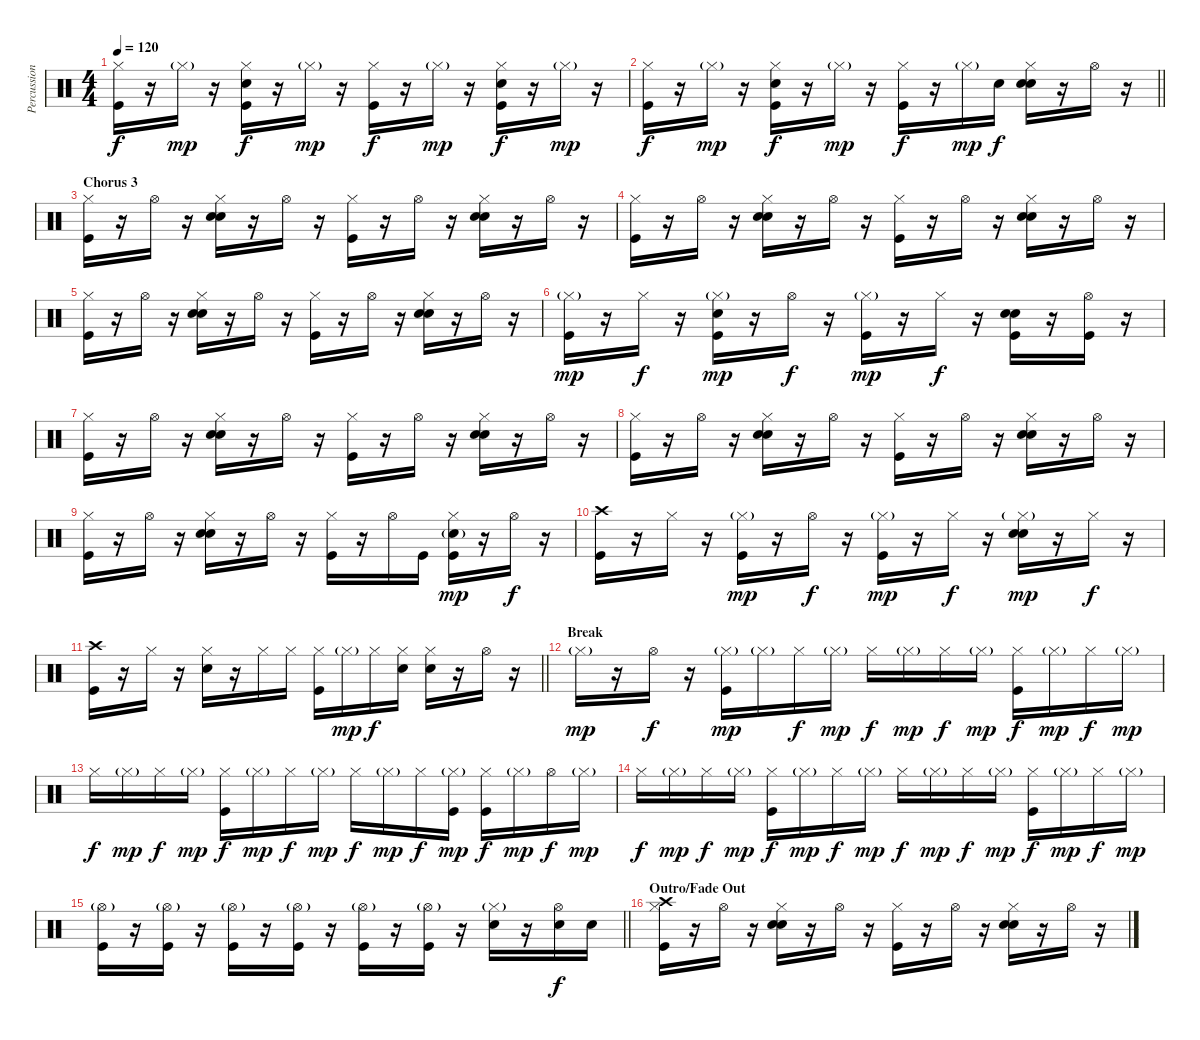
\track ("Percussion" "Percussion") {instrument percussion}
\staff {score}
\articulation defaults
\ts (4 4)
\tempo 120
\clef neutral
\ks c
("Hi-Hat (closed)" "Kick (hit)").16{dy f} r.16 "Hi-Hat (closed)"{g}.16{dy mp} r.16 ("Hi-Hat (closed)" "Snare (hit) 2" "Kick (hit)").16{dy f} r.16 "Hi-Hat (closed)"{g}.16{dy mp} r.16 ("Hi-Hat (closed)" "Kick (hit)").16{dy f} r.16 "Hi-Hat (closed)"{g}.16{dy mp} r.16 ("Hi-Hat (closed)" "Snare (hit) 2" "Kick (hit)").16{dy f} r.16 "Hi-Hat (closed)"{g}.16{dy mp} r.16 |
\barLineRight lightlight
("Hi-Hat (closed)" "Kick (hit)").16{dy f} r.16 "Hi-Hat (closed)"{g}.16{dy mp} r.16 ("Hi-Hat (closed)" "Snare (hit) 2" "Kick (hit)").16{dy f} r.16 "Hi-Hat (closed)"{g}.16{dy mp} r.16 ("Hi-Hat (closed)" "Kick (hit)").16{dy f} r.16 "Hi-Hat (closed)"{g}.16{dy mp} "Snare (hit) 2".16{dy f} ("Hi-Hat (closed)" "Hand Clap (hit)" "Snare (hit) 2").16 r.16 "Hi-Hat (open)".16 r.16 |
\section ("" "Chorus 3")
("Hi-Hat (closed)" "Kick (hit)").16 r.16 "Hi-Hat (open)".16 r.16 ("Hi-Hat (closed)" "Hand Clap (hit)" "Snare (hit) 2").16 r.16 "Hi-Hat (open)".16 r.16 ("Hi-Hat (closed)" "Kick (hit)").16 r.16 "Hi-Hat (open)".16 r.16 ("Hi-Hat (closed)" "Hand Clap (hit)" "Snare (hit) 2").16 r.16 "Hi-Hat (open)".16 r.16 |
("Hi-Hat (closed)" "Kick (hit)").16 r.16 "Hi-Hat (open)".16 r.16 ("Hi-Hat (closed)" "Hand Clap (hit)" "Snare (hit) 2").16 r.16 "Hi-Hat (open)".16 r.16 ("Hi-Hat (closed)" "Kick (hit)").16 r.16 "Hi-Hat (open)".16 r.16 ("Hi-Hat (closed)" "Hand Clap (hit)" "Snare (hit) 2").16 r.16 "Hi-Hat (open)".16 r.16 |
("Hi-Hat (closed)" "Kick (hit)").16 r.16 "Hi-Hat (open)".16 r.16 ("Hi-Hat (closed)" "Hand Clap (hit)" "Snare (hit) 2").16 r.16 "Hi-Hat (open)".16 r.16 ("Hi-Hat (closed)" "Kick (hit)").16 r.16 "Hi-Hat (open)".16 r.16 ("Hi-Hat (closed)" "Hand Clap (hit)" "Snare (hit) 2").16 r.16 "Hi-Hat (open)".16 r.16 |
("Hi-Hat (closed)"{g} "Kick (hit)").16{dy mp} r.16 "Hi-Hat (closed)".16{dy f} r.16 ("Hi-Hat (closed)"{g} "Hand Clap (hit)" "Kick (hit)").16{dy mp} r.16 "Hi-Hat (open)".16{dy f} r.16 ("Hi-Hat (closed)"{g} "Kick (hit)").16{dy mp} r.16 "Hi-Hat (closed)".16{dy f} r.16 ("Hand Clap (hit)" "Snare (hit) 2" "Kick (hit)").16 r.16 ("Hi-Hat (open)" "Kick (hit)").16 r.16 |
("Hi-Hat (closed)" "Kick (hit)").16 r.16 "Hi-Hat (open)".16 r.16 ("Hi-Hat (closed)" "Hand Clap (hit)" "Snare (hit) 2").16 r.16 "Hi-Hat (open)".16 r.16 ("Hi-Hat (closed)" "Kick (hit)").16 r.16 "Hi-Hat (open)".16 r.16 ("Hi-Hat (closed)" "Hand Clap (hit)" "Snare (hit) 2").16 r.16 "Hi-Hat (open)".16 r.16 |
("Hi-Hat (closed)" "Kick (hit)").16 r.16 "Hi-Hat (open)".16 r.16 ("Hi-Hat (closed)" "Hand Clap (hit)" "Snare (hit) 2").16 r.16 "Hi-Hat (open)".16 r.16 ("Hi-Hat (closed)" "Kick (hit)").16 r.16 "Hi-Hat (open)".16 r.16 ("Hi-Hat (closed)" "Hand Clap (hit)" "Snare (hit) 2").16 r.16 "Hi-Hat (open)".16 r.16 |
("Hi-Hat (closed)" "Kick (hit)").16 r.16 "Hi-Hat (open)".16 r.16 ("Hi-Hat (closed)" "Hand Clap (hit)" "Snare (hit) 2").16 r.16 "Hi-Hat (open)".16 r.16 ("Hi-Hat (closed)" "Kick (hit)").16 r.16 "Hi-Hat (open)".16 "Kick (hit)".16 ("Hi-Hat (closed)" "Hand Clap (hit)"{g} "Kick (hit)").16{dy mp} r.16 "Hi-Hat (open)".16{dy f} r.16 |
("Crash high (hit)" "Kick (hit)").16 r.16 "Hi-Hat (closed)".16 r.16 ("Hi-Hat (closed)"{g} "Kick (hit)").16{dy mp} r.16 "Hi-Hat (open)".16{dy f} r.16 ("Hi-Hat (closed)"{g} "Kick (hit)").16{dy mp} r.16 "Hi-Hat (closed)".16{dy f} r.16 ("Hi-Hat (closed)"{g} "Hand Clap (hit)" "Snare (hit) 2").16{dy mp} r.16 "Hi-Hat (closed)".16{dy f} r.16 |
\barLineRight lightlight
("Crash high (hit)" "Kick (hit)").16 r.16 "Hi-Hat (closed)".16 r.16 ("Hi-Hat (closed)" "Hand Clap (hit)").16 r.16 "Hi-Hat (closed)".16 "Hi-Hat (closed)".16 ("Hi-Hat (closed)" "Kick (hit)").16 "Hi-Hat (closed)"{g}.16{dy mp} "Hi-Hat (closed)".16{dy f} ("Hi-Hat (closed)" "Snare (hit) 2").16 ("Hi-Hat (closed)" "Snare (hit) 2").16 r.16 "Hi-Hat (open)".16 r.16 |
\section ("" "Break")
"Hi-Hat (closed)"{g}.16{dy mp} r.16 "Hi-Hat (open)".16{dy f} r.16 ("Hi-Hat (closed)"{g} "Kick (hit)").16{dy mp} "Hi-Hat (closed)"{g}.16 "Hi-Hat (closed)".16{dy f} "Hi-Hat (closed)"{g}.16{dy mp} "Hi-Hat (closed)".16{dy f} "Hi-Hat (closed)"{g}.16{dy mp} "Hi-Hat (closed)".16{dy f} "Hi-Hat (closed)"{g}.16{dy mp} ("Hi-Hat (closed)" "Kick (hit)").16{dy f} "Hi-Hat (closed)"{g}.16{dy mp} "Hi-Hat (closed)".16{dy f} "Hi-Hat (closed)"{g}.16{dy mp} |
"Hi-Hat (closed)".16{dy f} "Hi-Hat (closed)"{g}.16{dy mp} "Hi-Hat (closed)".16{dy f} "Hi-Hat (closed)"{g}.16{dy mp} ("Hi-Hat (closed)" "Kick (hit)").16{dy f} "Hi-Hat (closed)"{g}.16{dy mp} "Hi-Hat (closed)".16{dy f} "Hi-Hat (closed)"{g}.16{dy mp} "Hi-Hat (closed)".16{dy f} "Hi-Hat (closed)"{g}.16{dy mp} "Hi-Hat (closed)".16{dy f} ("Hi-Hat (closed)"{g} "Kick (hit)").16{dy mp} ("Hi-Hat (closed)" "Kick (hit)").16{dy f} "Hi-Hat (closed)"{g}.16{dy mp} "Hi-Hat (open)".16{dy f} "Hi-Hat (closed)"{g}.16{dy mp} |
"Hi-Hat (closed)".16{dy f} "Hi-Hat (closed)"{g}.16{dy mp} "Hi-Hat (closed)".16{dy f} "Hi-Hat (closed)"{g}.16{dy mp} ("Hi-Hat (closed)" "Kick (hit)").16{dy f} "Hi-Hat (closed)"{g}.16{dy mp} "Hi-Hat (closed)".16{dy f} "Hi-Hat (closed)"{g}.16{dy mp} "Hi-Hat (closed)".16{dy f} "Hi-Hat (closed)"{g}.16{dy mp} "Hi-Hat (closed)".16{dy f} "Hi-Hat (closed)"{g}.16{dy mp} ("Hi-Hat (closed)" "Kick (hit)").16{dy f} "Hi-Hat (closed)"{g}.16{dy mp} "Hi-Hat (closed)".16{dy f} "Hi-Hat (closed)"{g}.16{dy mp} |
\barLineRight lightlight
("Hi-Hat (open)"{g} "Kick (hit)").16 r.16 ("Hi-Hat (open)"{g} "Kick (hit)").16 r.16 ("Hi-Hat (open)"{g} "Kick (hit)").16 r.16 ("Hi-Hat (open)"{g} "Kick (hit)").16 r.16 ("Hi-Hat (open)"{g} "Kick (hit)").16 r.16 ("Hi-Hat (open)"{g} "Kick (hit)").16 r.16 ("Hi-Hat (closed)"{g} "Snare (hit) 2").16 r.16 ("Hi-Hat (open)" "Snare (hit) 2").16{dy f} "Snare (hit) 2".16 |
\section ("" "Outro/Fade Out")
("Crash high (hit)" "Hi-Hat (closed)" "Kick (hit)").16 r.16 "Hi-Hat (open)".16 r.16 ("Hi-Hat (closed)" "Hand Clap (hit)" "Snare (hit) 2").16 r.16 "Hi-Hat (open)".16 r.16 ("Hi-Hat (closed)" "Kick (hit)").16 r.16 "Hi-Hat (open)".16 r.16 ("Hi-Hat (closed)" "Hand Clap (hit)" "Snare (hit) 2").16 r.16 "Hi-Hat (open)".16 r.16
